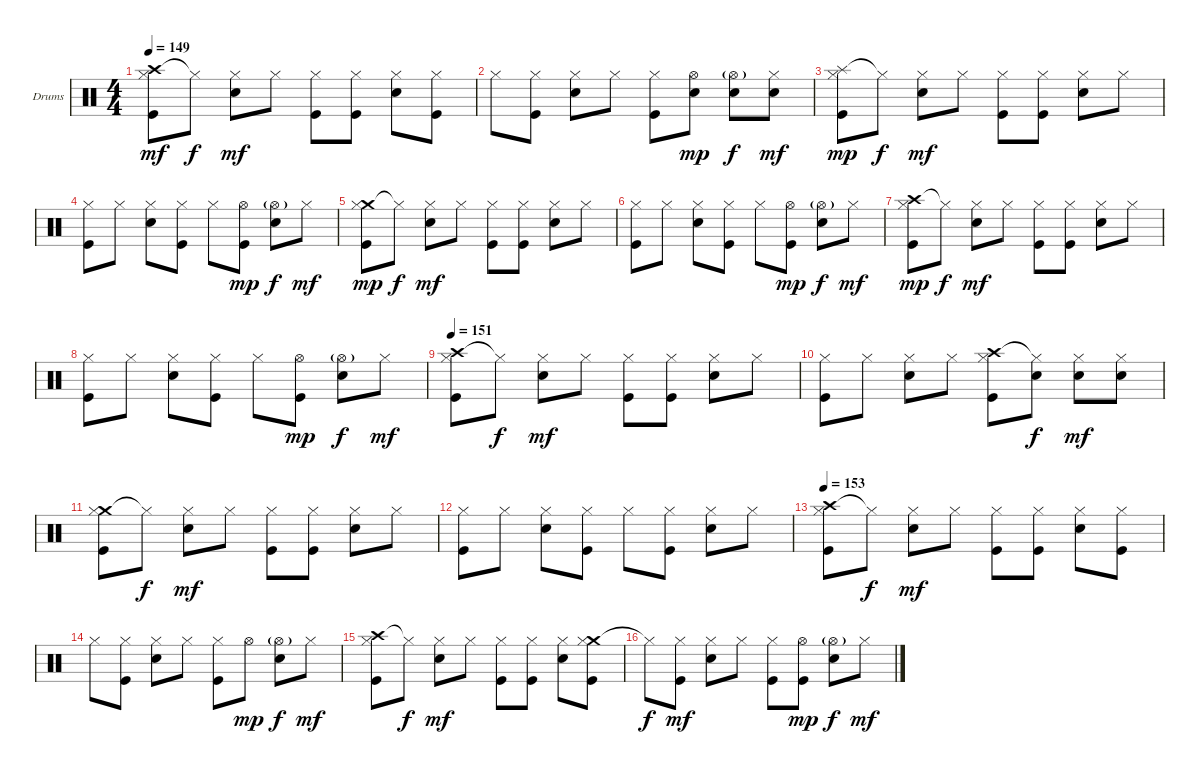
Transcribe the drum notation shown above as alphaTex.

\bracketExtendMode groupsimilarinstruments
\firstSystemTrackNameOrientation horizontal
\otherSystemsTrackNameOrientation horizontal
\track ("Drumkit" "Drums") {instrument percussion}
\staff {score}
\articulation defaults
\ts (4 4)
\tempo 149
\clef neutral
\ks c
("Crash high (hit)" "Hi-Hat (closed)" "Kick (hit)").8{dy mf} "Hi-Hat (closed)"{t}.8{dy f} ("Hi-Hat (closed)" "Snare (hit) 2").8{dy mf} "Hi-Hat (closed)".8 ("Hi-Hat (closed)" "Kick (hit)").8 ("Hi-Hat (closed)" "Kick (hit)").8 ("Hi-Hat (closed)" "Snare (hit) 2").8 ("Hi-Hat (closed)" "Kick (hit)").8 |
"Hi-Hat (closed)".8 ("Hi-Hat (closed)" "Kick (hit)").8 ("Hi-Hat (closed)" "Snare (hit) 2").8 "Hi-Hat (closed)".8 ("Hi-Hat (closed)" "Kick (hit)").8 ("Hi-Hat (open)" "Snare (hit) 2").8{dy mp} ("Hi-Hat (open)"{g} "Snare (hit) 2").8{dy f} ("Hi-Hat (closed)" "Snare (hit) 2").8{dy mf} |
("Splash (hit)" "Hi-Hat (closed)" "Kick (hit)").8{dy mp} "Hi-Hat (closed)"{t}.8{dy f} ("Hi-Hat (closed)" "Snare (hit) 2").8{dy mf} "Hi-Hat (closed)".8 ("Hi-Hat (closed)" "Kick (hit)").8 ("Hi-Hat (closed)" "Kick (hit)").8 ("Hi-Hat (closed)" "Snare (hit) 2").8 "Hi-Hat (closed)".8 |
("Hi-Hat (closed)" "Kick (hit)").8 "Hi-Hat (closed)".8 ("Hi-Hat (closed)" "Snare (hit) 2").8 ("Hi-Hat (closed)" "Kick (hit)").8 "Hi-Hat (closed)".8 ("Hi-Hat (open)" "Kick (hit)").8{dy mp} ("Hi-Hat (open)"{g} "Snare (hit) 2").8{dy f} "Hi-Hat (closed)".8{dy mf} |
("Crash medium (hit)" "Hi-Hat (closed)" "Kick (hit)").8{dy mp} "Hi-Hat (closed)"{t}.8{dy f} ("Hi-Hat (closed)" "Snare (hit) 2").8{dy mf} "Hi-Hat (closed)".8 ("Hi-Hat (closed)" "Kick (hit)").8 ("Hi-Hat (closed)" "Kick (hit)").8 ("Hi-Hat (closed)" "Snare (hit) 2").8 "Hi-Hat (closed)".8 |
("Hi-Hat (closed)" "Kick (hit)").8 "Hi-Hat (closed)".8 ("Hi-Hat (closed)" "Snare (hit) 2").8 ("Hi-Hat (closed)" "Kick (hit)").8 "Hi-Hat (closed)".8 ("Hi-Hat (open)" "Kick (hit)").8{dy mp} ("Hi-Hat (open)"{g} "Snare (hit) 2").8{dy f} "Hi-Hat (closed)".8{dy mf} |
("Crash high (hit)" "Hi-Hat (closed)" "Kick (hit)").8{dy mp} "Hi-Hat (closed)"{t}.8{dy f} ("Hi-Hat (closed)" "Snare (hit) 2").8{dy mf} "Hi-Hat (closed)".8 ("Hi-Hat (closed)" "Kick (hit)").8 ("Hi-Hat (closed)" "Kick (hit)").8 ("Hi-Hat (closed)" "Snare (hit) 2").8 "Hi-Hat (closed)".8 |
("Hi-Hat (closed)" "Kick (hit)").8 "Hi-Hat (closed)".8 ("Hi-Hat (closed)" "Snare (hit) 2").8 ("Hi-Hat (closed)" "Kick (hit)").8 "Hi-Hat (closed)".8 ("Hi-Hat (open)" "Kick (hit)").8{dy mp} ("Hi-Hat (open)"{g} "Snare (hit) 2").8{dy f} "Hi-Hat (closed)".8{dy mf} |
\tempo 151
("Crash high (hit)" "Hi-Hat (closed)" "Kick (hit)").8 "Hi-Hat (closed)"{t}.8{dy f} ("Hi-Hat (closed)" "Snare (hit) 2").8{dy mf} "Hi-Hat (closed)".8 ("Hi-Hat (closed)" "Kick (hit)").8 ("Hi-Hat (closed)" "Kick (hit)").8 ("Hi-Hat (closed)" "Snare (hit) 2").8 "Hi-Hat (closed)".8 |
("Hi-Hat (closed)" "Kick (hit)").8 "Hi-Hat (closed)".8 ("Hi-Hat (closed)" "Snare (hit) 2").8 "Hi-Hat (closed)".8 ("Crash high (hit)" "Hi-Hat (closed)" "Kick (hit)").8 ("Hi-Hat (closed)"{t} "Snare (hit) 2").8{dy f} ("Hi-Hat (closed)" "Snare (hit) 2").8{dy mf} ("Hi-Hat (closed)" "Snare (hit) 2").8 |
("Crash medium (hit)" "Hi-Hat (closed)" "Kick (hit)").8 "Hi-Hat (closed)"{t}.8{dy f} ("Hi-Hat (closed)" "Snare (hit) 2").8{dy mf} "Hi-Hat (closed)".8 ("Hi-Hat (closed)" "Kick (hit)").8 ("Hi-Hat (closed)" "Kick (hit)").8 ("Hi-Hat (closed)" "Snare (hit) 2").8 "Hi-Hat (closed)".8 |
("Hi-Hat (closed)" "Kick (hit)").8 "Hi-Hat (closed)".8 ("Hi-Hat (closed)" "Snare (hit) 2").8 ("Hi-Hat (closed)" "Kick (hit)").8 "Hi-Hat (closed)".8 ("Hi-Hat (closed)" "Kick (hit)").8 ("Hi-Hat (closed)" "Snare (hit) 2").8 "Hi-Hat (closed)".8 |
\tempo 153
("Crash high (hit)" "Hi-Hat (closed)" "Kick (hit)").8 "Hi-Hat (closed)"{t}.8{dy f} ("Hi-Hat (closed)" "Snare (hit) 2").8{dy mf} "Hi-Hat (closed)".8 ("Hi-Hat (closed)" "Kick (hit)").8 ("Hi-Hat (closed)" "Kick (hit)").8 ("Hi-Hat (closed)" "Snare (hit) 2").8 ("Hi-Hat (closed)" "Kick (hit)").8 |
"Hi-Hat (closed)".8 ("Hi-Hat (closed)" "Kick (hit)").8 ("Hi-Hat (closed)" "Snare (hit) 2").8 "Hi-Hat (closed)".8 ("Hi-Hat (closed)" "Kick (hit)").8 "Hi-Hat (open)".8{dy mp} ("Hi-Hat (open)"{g} "Snare (hit) 2").8{dy f} "Hi-Hat (closed)".8{dy mf} |
("Crash high (hit)" "Hi-Hat (closed)" "Kick (hit)").8 "Hi-Hat (closed)"{t}.8{dy f} ("Hi-Hat (closed)" "Snare (hit) 2").8{dy mf} "Hi-Hat (closed)".8 ("Hi-Hat (closed)" "Kick (hit)").8 ("Hi-Hat (closed)" "Kick (hit)").8 ("Hi-Hat (closed)" "Snare (hit) 2").8 ("Crash medium (hit)" "Hi-Hat (closed)" "Kick (hit)").8 |
"Hi-Hat (closed)"{t}.8{dy f} ("Hi-Hat (closed)" "Kick (hit)").8{dy mf} ("Hi-Hat (closed)" "Snare (hit) 2").8 "Hi-Hat (closed)".8 ("Hi-Hat (closed)" "Kick (hit)").8 ("Hi-Hat (open)" "Kick (hit)").8{dy mp} ("Hi-Hat (open)"{g} "Snare (hit) 2").8{dy f} "Hi-Hat (closed)".8{dy mf}
